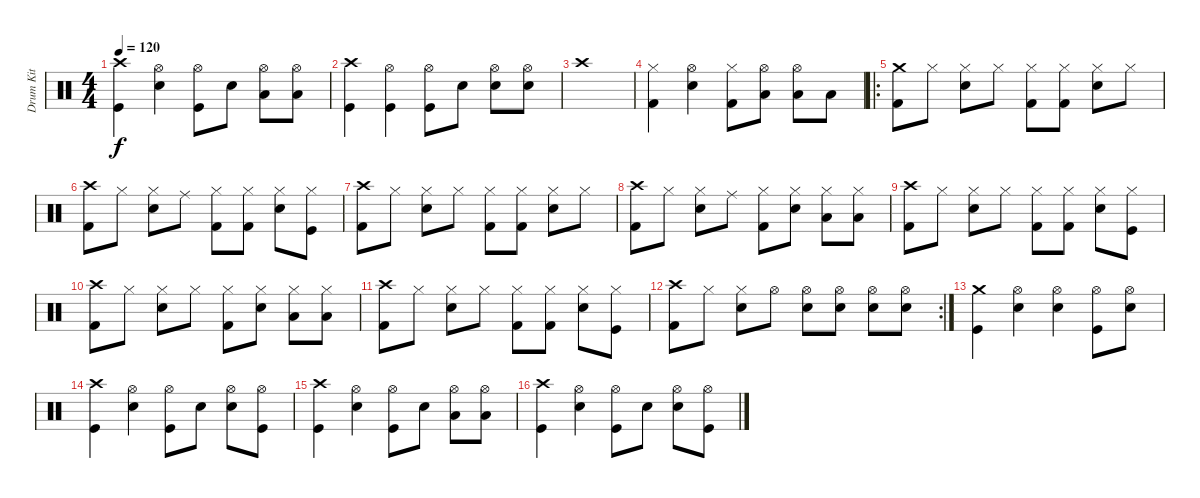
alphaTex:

\track ("Drum Kit" "Drum Kit") {instrument percussion}
\staff {score}
\articulation defaults
\ts (4 4)
\tempo 120
\clef neutral
\ks c
("Crash high (hit)" "Kick (hit)").4{dy f} ("Hi-Hat (open)" "Snare (hit) 2").4 ("Hi-Hat (open)" "Kick (hit)").8 "Snare (hit) 2".8 ("Hi-Hat (open)" "Low Tom (hit)").8 ("Hi-Hat (open)" "Low Floor Tom (hit)").8 |
("Crash high (hit)" "Kick (hit)").4 ("Hi-Hat (open)" "Kick (hit)").4 ("Hi-Hat (open)" "Kick (hit)").8 "Snare (hit) 2".8 ("Hi-Hat (open)" "Snare (hit) 2").8 ("Hi-Hat (open)" "Snare (hit) 2").8 |
"Crash high (hit)".1 |
("Hi-Hat (closed)" "Kick (hit) 2").4 ("Hi-Hat (open)" "Snare (hit) 2").4 ("Hi-Hat (closed)" "Kick (hit) 2").8 ("Hi-Hat (open)" "Low Tom (hit)").8 ("Hi-Hat (open)" "Low Tom (hit)").8 "Low Floor Tom (hit)".8 |
\ro
("Crash medium (hit)" "Kick (hit) 2").8 "Hi-Hat (closed)".8 ("Hi-Hat (closed)" "Snare (hit) 2").8 "Hi-Hat (closed)".8 ("Hi-Hat (closed)" "Kick (hit) 2").8 ("Hi-Hat (closed)" "Kick (hit) 2").8 ("Hi-Hat (closed)" "Snare (hit) 2").8 "Hi-Hat (closed)".8 |
("Crash high (hit)" "Kick (hit) 2").8 "Hi-Hat (closed)".8 ("Hi-Hat (closed)" "Snare (hit) 2").8 "Ride (middle)".8 ("Hi-Hat (closed)" "Kick (hit) 2").8 ("Hi-Hat (closed)" "Kick (hit) 2").8 ("Hi-Hat (closed)" "Snare (hit) 2").8 ("Hi-Hat (closed)" "Kick (hit)").8 |
("Crash high (hit)" "Kick (hit) 2").8 "Hi-Hat (closed)".8 ("Hi-Hat (closed)" "Snare (hit) 2").8 "Hi-Hat (closed)".8 ("Hi-Hat (closed)" "Kick (hit) 2").8 ("Hi-Hat (closed)" "Kick (hit) 2").8 ("Hi-Hat (closed)" "Snare (hit) 2").8 "Hi-Hat (closed)".8 |
("Crash high (hit)" "Kick (hit) 2").8 "Hi-Hat (closed)".8 ("Hi-Hat (closed)" "Snare (hit) 2").8 "Ride (middle)".8 ("Hi-Hat (closed)" "Kick (hit) 2").8 ("Hi-Hat (closed)" "Snare (hit) 2").8 ("Hi-Hat (closed)" "Low Tom (hit)").8 ("Hi-Hat (closed)" "Low Floor Tom (hit)").8 |
("Crash high (hit)" "Kick (hit) 2").8 "Hi-Hat (closed)".8 ("Hi-Hat (closed)" "Snare (hit) 2").8 "Hi-Hat (closed)".8 ("Hi-Hat (closed)" "Kick (hit) 2").8 ("Hi-Hat (closed)" "Kick (hit) 2").8 ("Hi-Hat (closed)" "Snare (hit) 2").8 ("Hi-Hat (closed)" "Kick (hit)").8 |
("Crash high (hit)" "Kick (hit) 2").8 "Hi-Hat (closed)".8 ("Hi-Hat (closed)" "Snare (hit) 2").8 "Hi-Hat (closed)".8 ("Hi-Hat (closed)" "Kick (hit) 2").8 ("Hi-Hat (closed)" "Snare (hit) 2").8 ("Hi-Hat (closed)" "Low Tom (hit)").8 ("Hi-Hat (closed)" "Low Floor Tom (hit)").8 |
("Crash high (hit)" "Kick (hit) 2").8 "Hi-Hat (closed)".8 ("Hi-Hat (closed)" "Snare (hit) 2").8 "Hi-Hat (closed)".8 ("Hi-Hat (closed)" "Kick (hit) 2").8 ("Hi-Hat (closed)" "Kick (hit) 2").8 ("Hi-Hat (closed)" "Snare (hit) 2").8 ("Hi-Hat (closed)" "Kick (hit)").8 |
\rc 2
("Crash high (hit)" "Kick (hit) 2").8 "Hi-Hat (closed)".8 ("Hi-Hat (closed)" "Snare (hit) 2").8 "Hi-Hat (open)".8 ("Hi-Hat (open)" "Snare (hit) 2").8 ("Hi-Hat (open)" "Snare (hit) 2").8 ("Hi-Hat (open)" "Snare (hit) 2").8 ("Hi-Hat (open)" "Snare (hit) 2").8 |
("Crash medium (hit)" "Kick (hit)").4 ("Hi-Hat (open)" "Snare (hit) 2").4 ("Hi-Hat (open)" "Snare (hit) 2").4 ("Hi-Hat (open)" "Kick (hit)").8 ("Hi-Hat (open)" "Snare (hit) 2").8 |
("Crash high (hit)" "Kick (hit)").4 ("Hi-Hat (open)" "Snare (hit) 2").4 ("Hi-Hat (open)" "Kick (hit)").8 "Snare (hit) 2".8 ("Hi-Hat (open)" "Snare (hit) 2").8 ("Hi-Hat (open)" "Kick (hit)").8 |
("Crash high (hit)" "Kick (hit)").4 ("Hi-Hat (open)" "Snare (hit) 2").4 ("Hi-Hat (open)" "Kick (hit)").8 "Snare (hit) 2".8 ("Hi-Hat (open)" "Low Tom (hit)").8 ("Hi-Hat (open)" "Low Floor Tom (hit)").8 |
("Crash high (hit)" "Kick (hit)").4 ("Hi-Hat (open)" "Snare (hit) 2").4 ("Hi-Hat (open)" "Kick (hit)").8 "Snare (hit) 2".8 ("Hi-Hat (open)" "Snare (hit) 2").8 ("Hi-Hat (open)" "Kick (hit)").8
